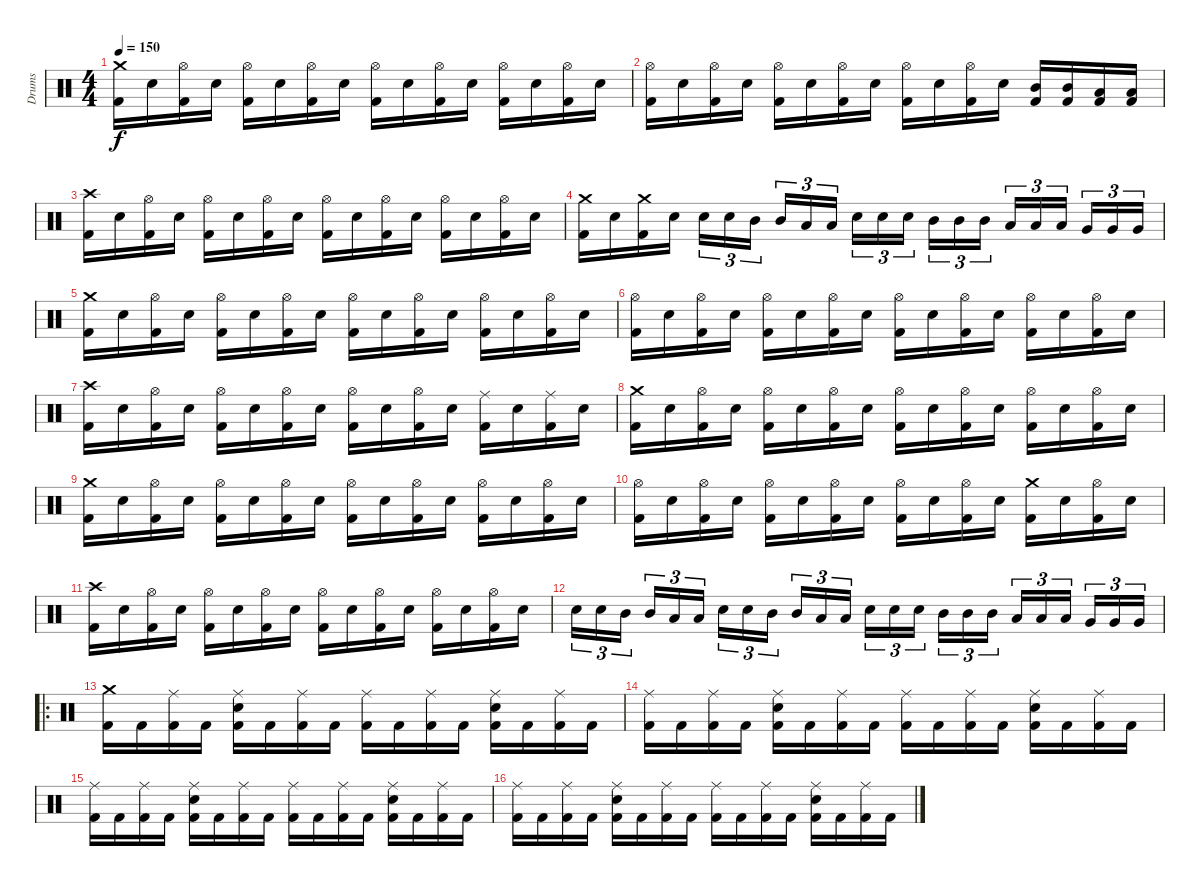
\track ("Drums" "Drums") {instrument percussion}
\staff {score}
\articulation defaults
\ts (4 4)
\tempo 150
\clef neutral
\ks c
("Kick (hit) 2" "Crash medium (hit)").16{dy f} "Electric Snare (hit)".16 ("Kick (hit) 2" "Hi-Hat (open)").16 "Electric Snare (hit)".16 ("Kick (hit) 2" "Hi-Hat (open)").16 "Electric Snare (hit)".16 ("Kick (hit) 2" "Hi-Hat (open)").16 "Electric Snare (hit)".16 ("Kick (hit) 2" "Hi-Hat (open)").16 "Electric Snare (hit)".16 ("Kick (hit) 2" "Hi-Hat (open)").16 "Electric Snare (hit)".16 ("Kick (hit) 2" "Hi-Hat (open)").16 "Electric Snare (hit)".16 ("Kick (hit) 2" "Hi-Hat (open)").16 "Electric Snare (hit)".16 |
("Kick (hit) 2" "Hi-Hat (open)").16 "Electric Snare (hit)".16 ("Kick (hit) 2" "Hi-Hat (open)").16 "Electric Snare (hit)".16 ("Kick (hit) 2" "Hi-Hat (open)").16 "Electric Snare (hit)".16 ("Kick (hit) 2" "Hi-Hat (open)").16 "Electric Snare (hit)".16 ("Kick (hit) 2" "Hi-Hat (open)").16 "Electric Snare (hit)".16 ("Kick (hit) 2" "Hi-Hat (open)").16 "Electric Snare (hit)".16 ("Kick (hit) 2" "Mid Tom (hit)").16 ("Kick (hit) 2" "Mid Tom (hit)").16 ("Kick (hit) 2" "Low Tom (hit)").16 ("Kick (hit) 2" "Low Tom (hit)").16 |
("Kick (hit) 2" "Crash high (hit)").16 "Electric Snare (hit)".16 ("Kick (hit) 2" "Hi-Hat (open)").16 "Electric Snare (hit)".16 ("Kick (hit) 2" "Hi-Hat (open)").16 "Electric Snare (hit)".16 ("Kick (hit) 2" "Hi-Hat (open)").16 "Electric Snare (hit)".16 ("Kick (hit) 2" "Hi-Hat (open)").16 "Electric Snare (hit)".16 ("Kick (hit) 2" "Hi-Hat (open)").16 "Electric Snare (hit)".16 ("Kick (hit) 2" "Hi-Hat (open)").16 "Electric Snare (hit)".16 ("Kick (hit) 2" "Hi-Hat (open)").16 "Electric Snare (hit)".16 |
("Kick (hit) 2" "Crash medium (hit)").16 "Electric Snare (hit)".16 ("Kick (hit) 2" "Crash medium (hit)").16 "Electric Snare (hit)".16 "Electric Snare (hit)".16{tu (3 2)} "Electric Snare (hit)".16{tu (3 2)} "Mid Tom (hit)".16{tu (3 2)} "Mid Tom (hit)".16{tu (3 2)} "Low Tom (hit)".16{tu (3 2)} "Low Tom (hit)".16{tu (3 2)} "Electric Snare (hit)".16{tu (3 2)} "Electric Snare (hit)".16{tu (3 2)} "Electric Snare (hit)".16{tu (3 2)} "Mid Tom (hit)".16{tu (3 2)} "Mid Tom (hit)".16{tu (3 2)} "Mid Tom (hit)".16{tu (3 2)} "Low Tom (hit)".16{tu (3 2)} "Low Tom (hit)".16{tu (3 2)} "Low Tom (hit)".16{tu (3 2)} "Very Low Tom (hit)".16{tu (3 2)} "Very Low Tom (hit)".16{tu (3 2)} "Very Low Tom (hit)".16{tu (3 2)} |
("Kick (hit) 2" "Crash medium (hit)").16 "Electric Snare (hit)".16 ("Kick (hit) 2" "Hi-Hat (open)").16 "Electric Snare (hit)".16 ("Kick (hit) 2" "Hi-Hat (open)").16 "Electric Snare (hit)".16 ("Kick (hit) 2" "Hi-Hat (open)").16 "Electric Snare (hit)".16 ("Kick (hit) 2" "Hi-Hat (open)").16 "Electric Snare (hit)".16 ("Kick (hit) 2" "Hi-Hat (open)").16 "Electric Snare (hit)".16 ("Kick (hit) 2" "Hi-Hat (open)").16 "Electric Snare (hit)".16 ("Kick (hit) 2" "Hi-Hat (open)").16 "Electric Snare (hit)".16 |
("Kick (hit) 2" "Hi-Hat (open)").16 "Electric Snare (hit)".16 ("Kick (hit) 2" "Hi-Hat (open)").16 "Electric Snare (hit)".16 ("Kick (hit) 2" "Hi-Hat (open)").16 "Electric Snare (hit)".16 ("Kick (hit) 2" "Hi-Hat (open)").16 "Electric Snare (hit)".16 ("Kick (hit) 2" "Hi-Hat (open)").16 "Electric Snare (hit)".16 ("Kick (hit) 2" "Hi-Hat (open)").16 "Electric Snare (hit)".16 ("Kick (hit) 2" "Hi-Hat (open)").16 "Electric Snare (hit)".16 ("Kick (hit) 2" "Hi-Hat (open)").16 "Electric Snare (hit)".16 |
("Kick (hit) 2" "Crash high (hit)").16 "Electric Snare (hit)".16 ("Kick (hit) 2" "Hi-Hat (open)").16 "Electric Snare (hit)".16 ("Kick (hit) 2" "Hi-Hat (open)").16 "Electric Snare (hit)".16 ("Kick (hit) 2" "Hi-Hat (open)").16 "Electric Snare (hit)".16 ("Kick (hit) 2" "Hi-Hat (open)").16 "Electric Snare (hit)".16 ("Kick (hit) 2" "Hi-Hat (open)").16 "Electric Snare (hit)".16 ("Kick (hit) 2" "Ride (middle)").16 "Electric Snare (hit)".16 ("Kick (hit) 2" "Ride (middle)").16 "Electric Snare (hit)".16 |
("Kick (hit) 2" "Crash medium (hit)").16 "Electric Snare (hit)".16 ("Kick (hit) 2" "Hi-Hat (open)").16 "Electric Snare (hit)".16 ("Kick (hit) 2" "Hi-Hat (open)").16 "Electric Snare (hit)".16 ("Kick (hit) 2" "Hi-Hat (open)").16 "Electric Snare (hit)".16 ("Kick (hit) 2" "Hi-Hat (open)").16 "Electric Snare (hit)".16 ("Kick (hit) 2" "Hi-Hat (open)").16 "Electric Snare (hit)".16 ("Kick (hit) 2" "Hi-Hat (open)").16 "Electric Snare (hit)".16 ("Kick (hit) 2" "Hi-Hat (open)").16 "Electric Snare (hit)".16 |
("Kick (hit) 2" "Crash medium (hit)").16 "Electric Snare (hit)".16 ("Kick (hit) 2" "Hi-Hat (open)").16 "Electric Snare (hit)".16 ("Kick (hit) 2" "Hi-Hat (open)").16 "Electric Snare (hit)".16 ("Kick (hit) 2" "Hi-Hat (open)").16 "Electric Snare (hit)".16 ("Kick (hit) 2" "Hi-Hat (open)").16 "Electric Snare (hit)".16 ("Kick (hit) 2" "Hi-Hat (open)").16 "Electric Snare (hit)".16 ("Kick (hit) 2" "Hi-Hat (open)").16 "Electric Snare (hit)".16 ("Kick (hit) 2" "Hi-Hat (open)").16 "Electric Snare (hit)".16 |
("Kick (hit) 2" "Hi-Hat (open)").16 "Electric Snare (hit)".16 ("Kick (hit) 2" "Hi-Hat (open)").16 "Electric Snare (hit)".16 ("Kick (hit) 2" "Hi-Hat (open)").16 "Electric Snare (hit)".16 ("Kick (hit) 2" "Hi-Hat (open)").16 "Electric Snare (hit)".16 ("Kick (hit) 2" "Hi-Hat (open)").16 "Electric Snare (hit)".16 ("Kick (hit) 2" "Hi-Hat (open)").16 "Electric Snare (hit)".16 ("Kick (hit) 2" "Crash medium (hit)").16 "Electric Snare (hit)".16 ("Kick (hit) 2" "Hi-Hat (open)").16 "Electric Snare (hit)".16 |
("Kick (hit) 2" "Crash high (hit)").16 "Electric Snare (hit)".16 ("Kick (hit) 2" "Hi-Hat (open)").16 "Electric Snare (hit)".16 ("Kick (hit) 2" "Hi-Hat (open)").16 "Electric Snare (hit)".16 ("Kick (hit) 2" "Hi-Hat (open)").16 "Electric Snare (hit)".16 ("Kick (hit) 2" "Hi-Hat (open)").16 "Electric Snare (hit)".16 ("Kick (hit) 2" "Hi-Hat (open)").16 "Electric Snare (hit)".16 ("Kick (hit) 2" "Hi-Hat (open)").16 "Electric Snare (hit)".16 ("Kick (hit) 2" "Hi-Hat (open)").16 "Electric Snare (hit)".16 |
"Electric Snare (hit)".16{tu (3 2)} "Electric Snare (hit)".16{tu (3 2)} "Mid Tom (hit)".16{tu (3 2)} "Mid Tom (hit)".16{tu (3 2)} "Low Tom (hit)".16{tu (3 2)} "Low Tom (hit)".16{tu (3 2)} "Electric Snare (hit)".16{tu (3 2)} "Electric Snare (hit)".16{tu (3 2)} "Mid Tom (hit)".16{tu (3 2)} "Mid Tom (hit)".16{tu (3 2)} "Low Tom (hit)".16{tu (3 2)} "Low Tom (hit)".16{tu (3 2)} "Electric Snare (hit)".16{tu (3 2)} "Electric Snare (hit)".16{tu (3 2)} "Electric Snare (hit)".16{tu (3 2)} "Mid Tom (hit)".16{tu (3 2)} "Mid Tom (hit)".16{tu (3 2)} "Mid Tom (hit)".16{tu (3 2)} "Low Tom (hit)".16{tu (3 2)} "Low Tom (hit)".16{tu (3 2)} "Low Tom (hit)".16{tu (3 2)} "Very Low Tom (hit)".16{tu (3 2)} "Very Low Tom (hit)".16{tu (3 2)} "Very Low Tom (hit)".16{tu (3 2)} |
\ro
("Kick (hit) 2" "Crash medium (hit)").16 "Kick (hit) 2".16 ("Kick (hit) 2" "Ride (middle)").16 "Kick (hit) 2".16 ("Kick (hit) 2" "Electric Snare (hit)" "Ride (middle)").16 "Kick (hit) 2".16 ("Kick (hit) 2" "Ride (middle)").16 "Kick (hit) 2".16 ("Kick (hit) 2" "Ride (middle)").16 "Kick (hit) 2".16 ("Kick (hit) 2" "Ride (middle)").16 "Kick (hit) 2".16 ("Kick (hit) 2" "Electric Snare (hit)" "Ride (middle)").16 "Kick (hit) 2".16 ("Kick (hit) 2" "Ride (middle)").16 "Kick (hit) 2".16 |
("Kick (hit) 2" "Ride (middle)").16 "Kick (hit) 2".16 ("Kick (hit) 2" "Ride (middle)").16 "Kick (hit) 2".16 ("Kick (hit) 2" "Electric Snare (hit)" "Ride (middle)").16 "Kick (hit) 2".16 ("Kick (hit) 2" "Ride (middle)").16 "Kick (hit) 2".16 ("Kick (hit) 2" "Ride (middle)").16 "Kick (hit) 2".16 ("Kick (hit) 2" "Ride (middle)").16 "Kick (hit) 2".16 ("Kick (hit) 2" "Electric Snare (hit)" "Ride (middle)").16 "Kick (hit) 2".16 ("Kick (hit) 2" "Ride (middle)").16 "Kick (hit) 2".16 |
("Kick (hit) 2" "Ride (middle)").16 "Kick (hit) 2".16 ("Kick (hit) 2" "Ride (middle)").16 "Kick (hit) 2".16 ("Kick (hit) 2" "Electric Snare (hit)" "Ride (middle)").16 "Kick (hit) 2".16 ("Kick (hit) 2" "Ride (middle)").16 "Kick (hit) 2".16 ("Kick (hit) 2" "Ride (middle)").16 "Kick (hit) 2".16 ("Kick (hit) 2" "Ride (middle)").16 "Kick (hit) 2".16 ("Kick (hit) 2" "Electric Snare (hit)" "Ride (middle)").16 "Kick (hit) 2".16 ("Kick (hit) 2" "Ride (middle)").16 "Kick (hit) 2".16 |
("Kick (hit) 2" "Ride (middle)").16 "Kick (hit) 2".16 ("Kick (hit) 2" "Ride (middle)").16 "Kick (hit) 2".16 ("Kick (hit) 2" "Electric Snare (hit)" "Ride (middle)").16 "Kick (hit) 2".16 ("Kick (hit) 2" "Ride (middle)").16 "Kick (hit) 2".16 ("Kick (hit) 2" "Ride (middle)").16 "Kick (hit) 2".16 ("Kick (hit) 2" "Ride (middle)").16 "Kick (hit) 2".16 ("Kick (hit) 2" "Electric Snare (hit)" "Ride (middle)").16 "Kick (hit) 2".16 ("Kick (hit) 2" "Ride (middle)").16 "Kick (hit) 2".16
